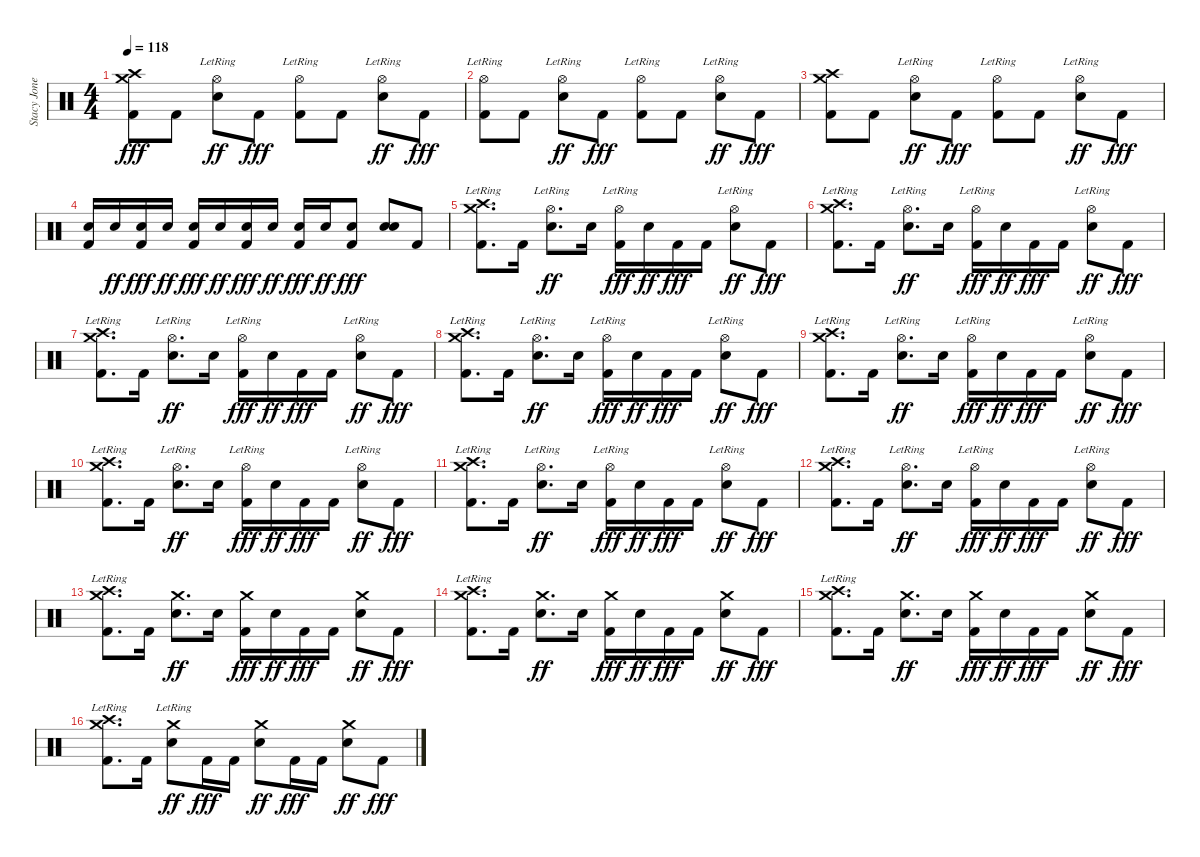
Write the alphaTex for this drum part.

\track ("Stacy Jones: Remo/Sabian HHX/AAX" "Stacy Jone") {instrument percussion}
\staff {score}
\articulation defaults
\ts (4 4)
\tempo 118
\clef neutral
\ks c
("Crash high (hit)" "Crash medium (hit)" "Kick (hit) 2").8{dy fff} "Kick (hit) 2".8 ("Hi-Hat (open)"{lr} "Electric Snare (hit)").8{dy ff} "Kick (hit) 2".8{dy fff} ("Hi-Hat (open)"{lr} "Kick (hit) 2").8 "Kick (hit) 2".8 ("Hi-Hat (open)"{lr} "Electric Snare (hit)").8{dy ff} "Kick (hit) 2".8{dy fff} |
("Hi-Hat (open)"{lr} "Kick (hit) 2").8 "Kick (hit) 2".8 ("Hi-Hat (open)"{lr} "Electric Snare (hit)").8{dy ff} "Kick (hit) 2".8{dy fff} ("Hi-Hat (open)"{lr} "Kick (hit) 2").8 "Kick (hit) 2".8 ("Hi-Hat (open)"{lr} "Electric Snare (hit)").8{dy ff} "Kick (hit) 2".8{dy fff} |
("Crash high (hit)" "Crash medium (hit)" "Kick (hit) 2").8 "Kick (hit) 2".8 ("Hi-Hat (open)"{lr} "Electric Snare (hit)").8{dy ff} "Kick (hit) 2".8{dy fff} ("Hi-Hat (open)"{lr} "Kick (hit) 2").8 "Kick (hit) 2".8 ("Hi-Hat (open)"{lr} "Electric Snare (hit)").8{dy ff} "Kick (hit) 2".8{dy fff} |
("Electric Snare (hit)" "Kick (hit) 2").16 "Electric Snare (hit)".16{dy ff} ("Electric Snare (hit)" "Kick (hit) 2").16{dy fff} "Electric Snare (hit)".16{dy ff} ("Electric Snare (hit)" "Kick (hit) 2").16{dy fff} "Electric Snare (hit)".16{dy ff} ("Electric Snare (hit)" "Kick (hit) 2").16{dy fff} "Electric Snare (hit)".16{dy ff} ("Electric Snare (hit)" "Kick (hit) 2").16{dy fff} "Electric Snare (hit)".16{dy ff} ("Electric Snare (hit)" "Kick (hit) 2").8{dy fff} ("Electric Snare (hit)" "Electric Snare (hit)").8 "Kick (hit) 2".8 |
("Crash medium (hit)"{lr} "Crash high (hit)"{lr} "Kick (hit) 2").8{d} "Kick (hit) 2".16 ("Hi-Hat (open)"{lr} "Electric Snare (hit)").8{d dy ff} "Electric Snare (hit)".16 ("Hi-Hat (open)"{lr} "Kick (hit) 2").16{dy fff} "Electric Snare (hit)".16{dy ff} "Kick (hit) 2".16{dy fff} "Kick (hit) 2".16 ("Hi-Hat (open)"{lr} "Electric Snare (hit)").8{dy ff} "Kick (hit) 2".8{dy fff} |
("Crash medium (hit)"{lr} "Crash high (hit)"{lr} "Kick (hit) 2").8{d} "Kick (hit) 2".16 ("Hi-Hat (open)"{lr} "Electric Snare (hit)").8{d dy ff} "Electric Snare (hit)".16 ("Hi-Hat (open)"{lr} "Kick (hit) 2").16{dy fff} "Electric Snare (hit)".16{dy ff} "Kick (hit) 2".16{dy fff} "Kick (hit) 2".16 ("Hi-Hat (open)"{lr} "Electric Snare (hit)").8{dy ff} "Kick (hit) 2".8{dy fff} |
("Crash medium (hit)"{lr} "Crash high (hit)"{lr} "Kick (hit) 2").8{d} "Kick (hit) 2".16 ("Hi-Hat (open)"{lr} "Electric Snare (hit)").8{d dy ff} "Electric Snare (hit)".16 ("Hi-Hat (open)"{lr} "Kick (hit) 2").16{dy fff} "Electric Snare (hit)".16{dy ff} "Kick (hit) 2".16{dy fff} "Kick (hit) 2".16 ("Hi-Hat (open)"{lr} "Electric Snare (hit)").8{dy ff} "Kick (hit) 2".8{dy fff} |
("Crash medium (hit)"{lr} "Crash high (hit)"{lr} "Kick (hit) 2").8{d} "Kick (hit) 2".16 ("Hi-Hat (open)"{lr} "Electric Snare (hit)").8{d dy ff} "Electric Snare (hit)".16 ("Hi-Hat (open)"{lr} "Kick (hit) 2").16{dy fff} "Electric Snare (hit)".16{dy ff} "Kick (hit) 2".16{dy fff} "Kick (hit) 2".16 ("Hi-Hat (open)"{lr} "Electric Snare (hit)").8{dy ff} "Kick (hit) 2".8{dy fff} |
("Crash medium (hit)"{lr} "Crash high (hit)"{lr} "Kick (hit) 2").8{d} "Kick (hit) 2".16 ("Hi-Hat (open)"{lr} "Electric Snare (hit)").8{d dy ff} "Electric Snare (hit)".16 ("Hi-Hat (open)"{lr} "Kick (hit) 2").16{dy fff} "Electric Snare (hit)".16{dy ff} "Kick (hit) 2".16{dy fff} "Kick (hit) 2".16 ("Hi-Hat (open)"{lr} "Electric Snare (hit)").8{dy ff} "Kick (hit) 2".8{dy fff} |
("Crash medium (hit)"{lr} "Crash high (hit)"{lr} "Kick (hit) 2").8{d} "Kick (hit) 2".16 ("Hi-Hat (open)"{lr} "Electric Snare (hit)").8{d dy ff} "Electric Snare (hit)".16 ("Hi-Hat (open)"{lr} "Kick (hit) 2").16{dy fff} "Electric Snare (hit)".16{dy ff} "Kick (hit) 2".16{dy fff} "Kick (hit) 2".16 ("Hi-Hat (open)"{lr} "Electric Snare (hit)").8{dy ff} "Kick (hit) 2".8{dy fff} |
("Crash medium (hit)"{lr} "Crash high (hit)"{lr} "Kick (hit) 2").8{d} "Kick (hit) 2".16 ("Hi-Hat (open)"{lr} "Electric Snare (hit)").8{d dy ff} "Electric Snare (hit)".16 ("Hi-Hat (open)"{lr} "Kick (hit) 2").16{dy fff} "Electric Snare (hit)".16{dy ff} "Kick (hit) 2".16{dy fff} "Kick (hit) 2".16 ("Hi-Hat (open)"{lr} "Electric Snare (hit)").8{dy ff} "Kick (hit) 2".8{dy fff} |
("Crash medium (hit)"{lr} "Crash high (hit)"{lr} "Kick (hit) 2").8{d} "Kick (hit) 2".16 ("Hi-Hat (open)"{lr} "Electric Snare (hit)").8{d dy ff} "Electric Snare (hit)".16 ("Hi-Hat (open)"{lr} "Kick (hit) 2").16{dy fff} "Electric Snare (hit)".16{dy ff} "Kick (hit) 2".16{dy fff} "Kick (hit) 2".16 ("Hi-Hat (open)"{lr} "Electric Snare (hit)").8{dy ff} "Kick (hit) 2".8{dy fff} |
("Crash medium (hit)"{lr} "Crash high (hit)"{lr} "Kick (hit) 2").8{d} "Kick (hit) 2".16 ("Crash medium (hit)" "Electric Snare (hit)").8{d dy ff} "Electric Snare (hit)".16 ("Crash medium (hit)" "Kick (hit) 2").16{dy fff} "Electric Snare (hit)".16{dy ff} "Kick (hit) 2".16{dy fff} "Kick (hit) 2".16 ("Crash medium (hit)" "Electric Snare (hit)").8{dy ff} "Kick (hit) 2".8{dy fff} |
("Crash medium (hit)"{lr} "Crash high (hit)"{lr} "Kick (hit) 2").8{d} "Kick (hit) 2".16 ("Crash medium (hit)" "Electric Snare (hit)").8{d dy ff} "Electric Snare (hit)".16 ("Crash medium (hit)" "Kick (hit) 2").16{dy fff} "Electric Snare (hit)".16{dy ff} "Kick (hit) 2".16{dy fff} "Kick (hit) 2".16 ("Crash medium (hit)" "Electric Snare (hit)").8{dy ff} "Kick (hit) 2".8{dy fff} |
("Crash medium (hit)"{lr} "Crash high (hit)"{lr} "Kick (hit) 2").8{d} "Kick (hit) 2".16 ("Crash medium (hit)" "Electric Snare (hit)").8{d dy ff} "Electric Snare (hit)".16 ("Crash medium (hit)" "Kick (hit) 2").16{dy fff} "Electric Snare (hit)".16{dy ff} "Kick (hit) 2".16{dy fff} "Kick (hit) 2".16 ("Crash medium (hit)" "Electric Snare (hit)").8{dy ff} "Kick (hit) 2".8{dy fff} |
("Crash medium (hit)"{lr} "Crash high (hit)"{lr} "Kick (hit) 2").8{d} "Kick (hit) 2".16 ("Crash medium (hit)"{lr} "Electric Snare (hit)").8{dy ff} "Kick (hit) 2".16{dy fff} "Kick (hit) 2".16 ("Crash medium (hit)" "Electric Snare (hit)").8{dy ff} "Kick (hit) 2".16{dy fff} "Kick (hit) 2".16 ("Crash medium (hit)" "Electric Snare (hit)").8{dy ff} "Kick (hit) 2".8{dy fff}
